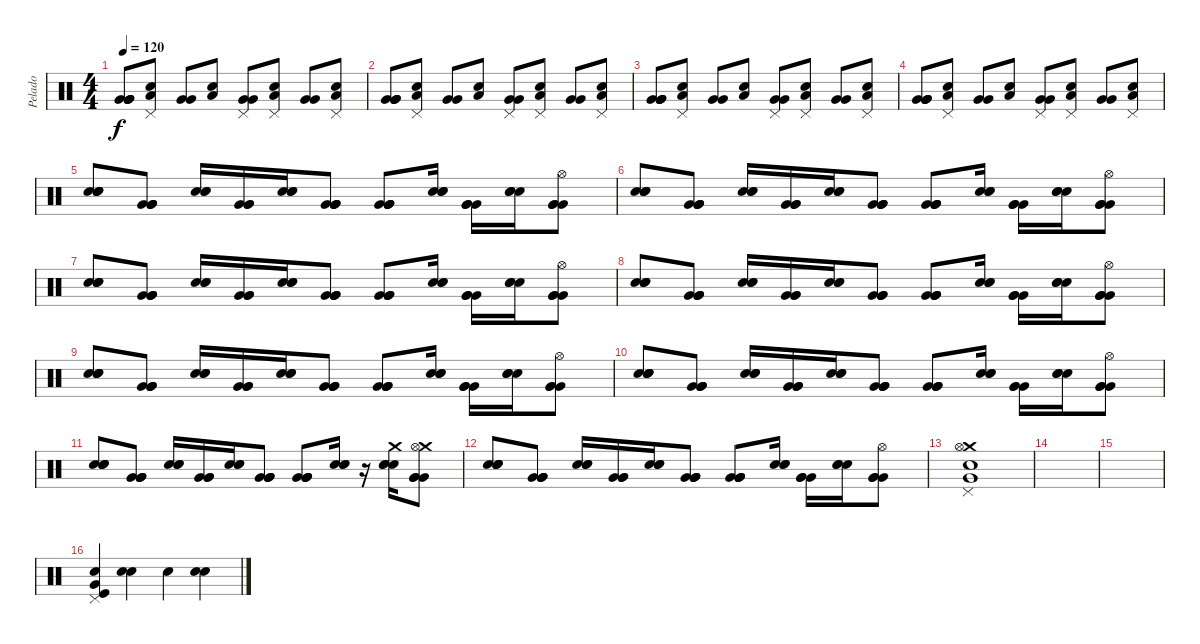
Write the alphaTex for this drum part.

\track ("Pelado" "Pelado") {instrument percussion}
\staff {score}
\articulation defaults
\ts (4 4)
\tempo 120
\clef neutral
\ks c
("Very Low Tom (hit)" "Very Low Tom (hit)" "Very Low Tom (hit)" "Very Low Tom (hit)").8{dy f} ("Pedal Hi-Hat (hit)" "Low Floor Tom (hit)" "Electric Snare (hit)").8 ("Very Low Tom (hit)" "Very Low Tom (hit)").8 ("Low Floor Tom (hit)" "Electric Snare (hit)").8 ("Pedal Hi-Hat (hit)" "Very Low Tom (hit)" "Very Low Tom (hit)").8 ("Pedal Hi-Hat (hit)" "Low Floor Tom (hit)" "Electric Snare (hit)").8 ("Very Low Tom (hit)" "Very Low Tom (hit)").8 ("Electric Snare (hit)" "Low Floor Tom (hit)" "Pedal Hi-Hat (hit)").8 |
("Very Low Tom (hit)" "Very Low Tom (hit)" "Very Low Tom (hit)" "Very Low Tom (hit)").8 ("Pedal Hi-Hat (hit)" "Low Floor Tom (hit)" "Electric Snare (hit)").8 ("Very Low Tom (hit)" "Very Low Tom (hit)").8 ("Low Floor Tom (hit)" "Electric Snare (hit)").8 ("Pedal Hi-Hat (hit)" "Very Low Tom (hit)" "Very Low Tom (hit)").8 ("Pedal Hi-Hat (hit)" "Low Floor Tom (hit)" "Electric Snare (hit)").8 ("Very Low Tom (hit)" "Very Low Tom (hit)").8 ("Electric Snare (hit)" "Low Floor Tom (hit)" "Pedal Hi-Hat (hit)").8 |
("Very Low Tom (hit)" "Very Low Tom (hit)" "Very Low Tom (hit)" "Very Low Tom (hit)").8 ("Pedal Hi-Hat (hit)" "Low Floor Tom (hit)" "Electric Snare (hit)").8 ("Very Low Tom (hit)" "Very Low Tom (hit)").8 ("Low Floor Tom (hit)" "Electric Snare (hit)").8 ("Pedal Hi-Hat (hit)" "Very Low Tom (hit)" "Very Low Tom (hit)").8 ("Pedal Hi-Hat (hit)" "Low Floor Tom (hit)" "Electric Snare (hit)").8 ("Very Low Tom (hit)" "Very Low Tom (hit)").8 ("Electric Snare (hit)" "Low Floor Tom (hit)" "Pedal Hi-Hat (hit)").8 |
("Very Low Tom (hit)" "Very Low Tom (hit)" "Very Low Tom (hit)" "Very Low Tom (hit)").8 ("Pedal Hi-Hat (hit)" "Low Floor Tom (hit)" "Electric Snare (hit)").8 ("Very Low Tom (hit)" "Very Low Tom (hit)").8 ("Low Floor Tom (hit)" "Electric Snare (hit)").8 ("Pedal Hi-Hat (hit)" "Very Low Tom (hit)" "Very Low Tom (hit)").8 ("Pedal Hi-Hat (hit)" "Low Floor Tom (hit)" "Electric Snare (hit)").8 ("Very Low Tom (hit)" "Very Low Tom (hit)").8 ("Electric Snare (hit)" "Low Floor Tom (hit)" "Pedal Hi-Hat (hit)").8 |
("Electric Snare (hit)" "Electric Snare (hit)" "Electric Snare (hit)" "Electric Snare (hit)").8 ("Very Low Tom (hit)" "Very Low Tom (hit)" "Very Low Tom (hit)" "Very Low Tom (hit)").8 ("Electric Snare (hit)" "Electric Snare (hit)" "Electric Snare (hit)").16 ("Very Low Tom (hit)" "Very Low Tom (hit)" "Very Low Tom (hit)").16 ("Electric Snare (hit)" "Electric Snare (hit)" "Electric Snare (hit)").16 ("Very Low Tom (hit)" "Very Low Tom (hit)" "Very Low Tom (hit)" "Very Low Tom (hit)").8 ("Very Low Tom (hit)" "Very Low Tom (hit)" "Very Low Tom (hit)" "Very Low Tom (hit)").8 ("Electric Snare (hit)" "Electric Snare (hit)" "Electric Snare (hit)").16 ("Very Low Tom (hit)" "Very Low Tom (hit)" "Very Low Tom (hit)").16 ("Electric Snare (hit)" "Electric Snare (hit)" "Electric Snare (hit)").16 ("Hi-Hat (open)" "Very Low Tom (hit)" "Very Low Tom (hit)" "Very Low Tom (hit)").8 |
("Electric Snare (hit)" "Electric Snare (hit)" "Electric Snare (hit)" "Electric Snare (hit)").8 ("Very Low Tom (hit)" "Very Low Tom (hit)" "Very Low Tom (hit)" "Very Low Tom (hit)").8 ("Electric Snare (hit)" "Electric Snare (hit)" "Electric Snare (hit)").16 ("Very Low Tom (hit)" "Very Low Tom (hit)" "Very Low Tom (hit)").16 ("Electric Snare (hit)" "Electric Snare (hit)" "Electric Snare (hit)").16 ("Very Low Tom (hit)" "Very Low Tom (hit)" "Very Low Tom (hit)" "Very Low Tom (hit)").8 ("Very Low Tom (hit)" "Very Low Tom (hit)" "Very Low Tom (hit)" "Very Low Tom (hit)").8 ("Electric Snare (hit)" "Electric Snare (hit)" "Electric Snare (hit)").16 ("Very Low Tom (hit)" "Very Low Tom (hit)" "Very Low Tom (hit)").16 ("Electric Snare (hit)" "Electric Snare (hit)" "Electric Snare (hit)").16 ("Hi-Hat (open)" "Very Low Tom (hit)" "Very Low Tom (hit)" "Very Low Tom (hit)").8 |
("Electric Snare (hit)" "Electric Snare (hit)" "Electric Snare (hit)" "Electric Snare (hit)").8 ("Very Low Tom (hit)" "Very Low Tom (hit)" "Very Low Tom (hit)" "Very Low Tom (hit)").8 ("Electric Snare (hit)" "Electric Snare (hit)" "Electric Snare (hit)").16 ("Very Low Tom (hit)" "Very Low Tom (hit)" "Very Low Tom (hit)").16 ("Electric Snare (hit)" "Electric Snare (hit)" "Electric Snare (hit)").16 ("Very Low Tom (hit)" "Very Low Tom (hit)" "Very Low Tom (hit)" "Very Low Tom (hit)").8 ("Very Low Tom (hit)" "Very Low Tom (hit)" "Very Low Tom (hit)" "Very Low Tom (hit)").8 ("Electric Snare (hit)" "Electric Snare (hit)" "Electric Snare (hit)").16 ("Very Low Tom (hit)" "Very Low Tom (hit)" "Very Low Tom (hit)").16 ("Electric Snare (hit)" "Electric Snare (hit)" "Electric Snare (hit)").16 ("Hi-Hat (open)" "Very Low Tom (hit)" "Very Low Tom (hit)" "Very Low Tom (hit)").8 |
("Electric Snare (hit)" "Electric Snare (hit)" "Electric Snare (hit)" "Electric Snare (hit)").8 ("Very Low Tom (hit)" "Very Low Tom (hit)" "Very Low Tom (hit)" "Very Low Tom (hit)").8 ("Electric Snare (hit)" "Electric Snare (hit)" "Electric Snare (hit)").16 ("Very Low Tom (hit)" "Very Low Tom (hit)" "Very Low Tom (hit)").16 ("Electric Snare (hit)" "Electric Snare (hit)" "Electric Snare (hit)").16 ("Very Low Tom (hit)" "Very Low Tom (hit)" "Very Low Tom (hit)" "Very Low Tom (hit)").8 ("Very Low Tom (hit)" "Very Low Tom (hit)" "Very Low Tom (hit)" "Very Low Tom (hit)").8 ("Electric Snare (hit)" "Electric Snare (hit)" "Electric Snare (hit)").16 ("Very Low Tom (hit)" "Very Low Tom (hit)" "Very Low Tom (hit)").16 ("Electric Snare (hit)" "Electric Snare (hit)" "Electric Snare (hit)").16 ("Hi-Hat (open)" "Very Low Tom (hit)" "Very Low Tom (hit)" "Very Low Tom (hit)").8 |
("Electric Snare (hit)" "Electric Snare (hit)" "Electric Snare (hit)" "Electric Snare (hit)").8 ("Very Low Tom (hit)" "Very Low Tom (hit)" "Very Low Tom (hit)" "Very Low Tom (hit)").8 ("Electric Snare (hit)" "Electric Snare (hit)" "Electric Snare (hit)").16 ("Very Low Tom (hit)" "Very Low Tom (hit)" "Very Low Tom (hit)").16 ("Electric Snare (hit)" "Electric Snare (hit)" "Electric Snare (hit)").16 ("Very Low Tom (hit)" "Very Low Tom (hit)" "Very Low Tom (hit)" "Very Low Tom (hit)").8 ("Very Low Tom (hit)" "Very Low Tom (hit)" "Very Low Tom (hit)" "Very Low Tom (hit)").8 ("Electric Snare (hit)" "Electric Snare (hit)" "Electric Snare (hit)").16 ("Very Low Tom (hit)" "Very Low Tom (hit)" "Very Low Tom (hit)").16 ("Electric Snare (hit)" "Electric Snare (hit)" "Electric Snare (hit)").16 ("Hi-Hat (open)" "Very Low Tom (hit)" "Very Low Tom (hit)" "Very Low Tom (hit)").8 |
("Electric Snare (hit)" "Electric Snare (hit)" "Electric Snare (hit)" "Electric Snare (hit)").8 ("Very Low Tom (hit)" "Very Low Tom (hit)" "Very Low Tom (hit)" "Very Low Tom (hit)").8 ("Electric Snare (hit)" "Electric Snare (hit)" "Electric Snare (hit)").16 ("Very Low Tom (hit)" "Very Low Tom (hit)" "Very Low Tom (hit)").16 ("Electric Snare (hit)" "Electric Snare (hit)" "Electric Snare (hit)").16 ("Very Low Tom (hit)" "Very Low Tom (hit)" "Very Low Tom (hit)" "Very Low Tom (hit)").8 ("Very Low Tom (hit)" "Very Low Tom (hit)" "Very Low Tom (hit)" "Very Low Tom (hit)").8 ("Electric Snare (hit)" "Electric Snare (hit)" "Electric Snare (hit)").16 ("Very Low Tom (hit)" "Very Low Tom (hit)" "Very Low Tom (hit)").16 ("Electric Snare (hit)" "Electric Snare (hit)" "Electric Snare (hit)").16 ("Hi-Hat (open)" "Very Low Tom (hit)" "Very Low Tom (hit)" "Very Low Tom (hit)").8 |
("Electric Snare (hit)" "Electric Snare (hit)" "Electric Snare (hit)" "Electric Snare (hit)").8 ("Very Low Tom (hit)" "Very Low Tom (hit)" "Very Low Tom (hit)" "Very Low Tom (hit)").8 ("Electric Snare (hit)" "Electric Snare (hit)" "Electric Snare (hit)").16 ("Very Low Tom (hit)" "Very Low Tom (hit)" "Very Low Tom (hit)").16 ("Electric Snare (hit)" "Electric Snare (hit)" "Electric Snare (hit)").16 ("Very Low Tom (hit)" "Very Low Tom (hit)" "Very Low Tom (hit)" "Very Low Tom (hit)").8 ("Very Low Tom (hit)" "Very Low Tom (hit)" "Very Low Tom (hit)" "Very Low Tom (hit)").8 ("Electric Snare (hit)" "Electric Snare (hit)" "Electric Snare (hit)").16 r.16 ("Crash medium (hit)" "Electric Snare (hit)" "Electric Snare (hit)" "Electric Snare (hit)").16 ("Crash medium (hit)" "Hi-Hat (open)" "Very Low Tom (hit)" "Very Low Tom (hit)" "Very Low Tom (hit)").8 |
("Electric Snare (hit)" "Electric Snare (hit)" "Electric Snare (hit)" "Electric Snare (hit)").8 ("Very Low Tom (hit)" "Very Low Tom (hit)" "Very Low Tom (hit)" "Very Low Tom (hit)").8 ("Electric Snare (hit)" "Electric Snare (hit)" "Electric Snare (hit)").16 ("Very Low Tom (hit)" "Very Low Tom (hit)" "Very Low Tom (hit)").16 ("Electric Snare (hit)" "Electric Snare (hit)" "Electric Snare (hit)").16 ("Very Low Tom (hit)" "Very Low Tom (hit)" "Very Low Tom (hit)" "Very Low Tom (hit)").8 ("Very Low Tom (hit)" "Very Low Tom (hit)" "Very Low Tom (hit)" "Very Low Tom (hit)").8 ("Electric Snare (hit)" "Electric Snare (hit)" "Electric Snare (hit)").16 ("Very Low Tom (hit)" "Very Low Tom (hit)" "Very Low Tom (hit)").16 ("Electric Snare (hit)" "Electric Snare (hit)" "Electric Snare (hit)").16 ("Hi-Hat (open)" "Very Low Tom (hit)" "Very Low Tom (hit)" "Very Low Tom (hit)").8 |
("Crash medium (hit)" "Hi-Hat (open)" "Very Low Tom (hit)" "Pedal Hi-Hat (hit)" "Electric Snare (hit)").1 |
|
|
("Pedal Hi-Hat (hit)" "Snare (hit) 2" "Kick (hit)" "Very Low Tom (hit)").4 ("Electric Snare (hit)" "Electric Snare (hit)").4 "Snare (hit) 2".4 ("Electric Snare (hit)" "Electric Snare (hit)").4
